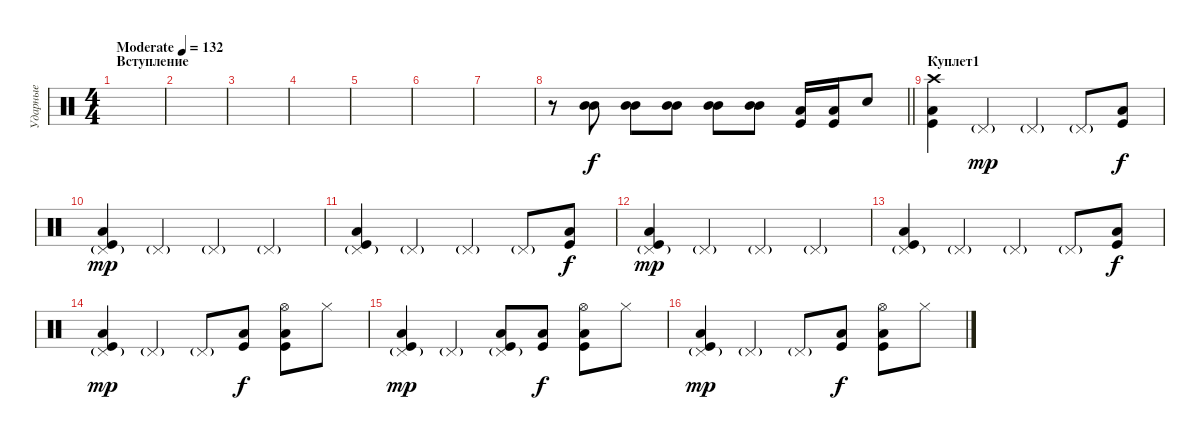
\track ("Ударные" "Ударные") {instrument percussion}
\staff {score}
\articulation defaults
\ts (4 4)
\section ("" "Вступление")
\tempo (132 "Moderate")
\clef neutral
\ks c
|
|
|
|
|
|
|
\barLineRight lightlight
r.8 ("Mid Tom (hit)" "Mid Tom (hit)").8 ("Mid Tom (hit)" "Mid Tom (hit)").8 ("Mid Tom (hit)" "Mid Tom (hit)").8 ("Mid Tom (hit)" "Mid Tom (hit)").8 ("Mid Tom (hit)" "Mid Tom (hit)").8 ("Kick (hit)" "Low Tom (hit)").16 ("Kick (hit)" "Low Tom (hit)").16 "Electric Snare (hit)".8 |
\section ("" "Куплет1")
("Crash high (hit)" "Low Tom (hit)" "Kick (hit)").4 "Pedal Hi-Hat (hit)"{g}.4{dy mp} "Pedal Hi-Hat (hit)"{g}.4 "Pedal Hi-Hat (hit)"{g}.8 ("Low Tom (hit)" "Kick (hit)").8{dy f} |
("Pedal Hi-Hat (hit)"{g} "Low Tom (hit)" "Kick (hit)").4{dy mp} "Pedal Hi-Hat (hit)"{g}.4 "Pedal Hi-Hat (hit)"{g}.4 "Pedal Hi-Hat (hit)"{g}.4 |
("Pedal Hi-Hat (hit)"{g} "Low Tom (hit)" "Kick (hit)").4 "Pedal Hi-Hat (hit)"{g}.4 "Pedal Hi-Hat (hit)"{g}.4 "Pedal Hi-Hat (hit)"{g}.8 ("Low Tom (hit)" "Kick (hit)").8{dy f} |
("Pedal Hi-Hat (hit)"{g} "Low Tom (hit)" "Kick (hit)").4{dy mp} "Pedal Hi-Hat (hit)"{g}.4 "Pedal Hi-Hat (hit)"{g}.4 "Pedal Hi-Hat (hit)"{g}.4 |
("Pedal Hi-Hat (hit)"{g} "Low Tom (hit)" "Kick (hit)").4 "Pedal Hi-Hat (hit)"{g}.4 "Pedal Hi-Hat (hit)"{g}.4 "Pedal Hi-Hat (hit)"{g}.8 ("Low Tom (hit)" "Kick (hit)").8{dy f} |
("Pedal Hi-Hat (hit)"{g} "Low Tom (hit)" "Kick (hit)").4{dy mp} "Pedal Hi-Hat (hit)"{g}.4 "Pedal Hi-Hat (hit)"{g}.8 ("Low Tom (hit)" "Kick (hit)").8{dy f} ("Hi-Hat (open)" "Low Tom (hit)" "Kick (hit)").8 "Hi-Hat (closed)".8 |
("Pedal Hi-Hat (hit)"{g} "Low Tom (hit)" "Kick (hit)").4{dy mp} "Pedal Hi-Hat (hit)"{g}.4 ("Pedal Hi-Hat (hit)"{g} "Low Tom (hit)" "Kick (hit)").8 ("Low Tom (hit)" "Kick (hit)").8{dy f} ("Hi-Hat (open)" "Low Tom (hit)" "Kick (hit)").8 "Hi-Hat (closed)".8 |
("Pedal Hi-Hat (hit)"{g} "Low Tom (hit)" "Kick (hit)").4{dy mp} "Pedal Hi-Hat (hit)"{g}.4 "Pedal Hi-Hat (hit)"{g}.8 ("Low Tom (hit)" "Kick (hit)").8{dy f} ("Hi-Hat (open)" "Low Tom (hit)" "Kick (hit)").8 "Hi-Hat (closed)".8
